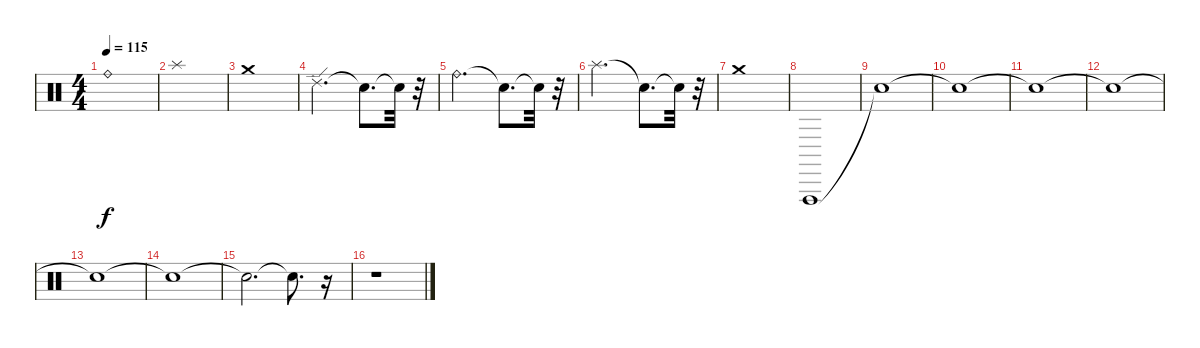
\track "" {instrument percussion}
\staff {score}
\articulation defaults
\ts (4 4)
\tempo 115
\clef neutral
\ks c "Ride (bell)".1{dy f}
|
"Splash (hit)".1 |
"Crash medium (hit)".1 |
"Ride (edge) 2".2{d} "Snare (hit)"{t}.8{d} "Snare (hit)"{t}.32 r.32 |
"Ride (bell)".2{d} "Snare (hit)"{t}.8{d} "Snare (hit)"{t}.32 r.32 |
"Splash (hit)".2{d} "Snare (hit)"{t}.8{d} "Snare (hit)"{t}.32 r.32 |
"Crash medium (hit)".1 |
"Vibraslap (hit)".1 |
"Snare (hit)"{t}.1 |
"Snare (hit)"{t}.1 |
"Snare (hit)"{t}.1 |
"Snare (hit)"{t}.1 |
"Snare (hit)"{t}.1 |
"Snare (hit)"{t}.1 |
"Snare (hit)"{t}.2{d} "Snare (hit)"{t}.8{d} r.16 |
r.1
